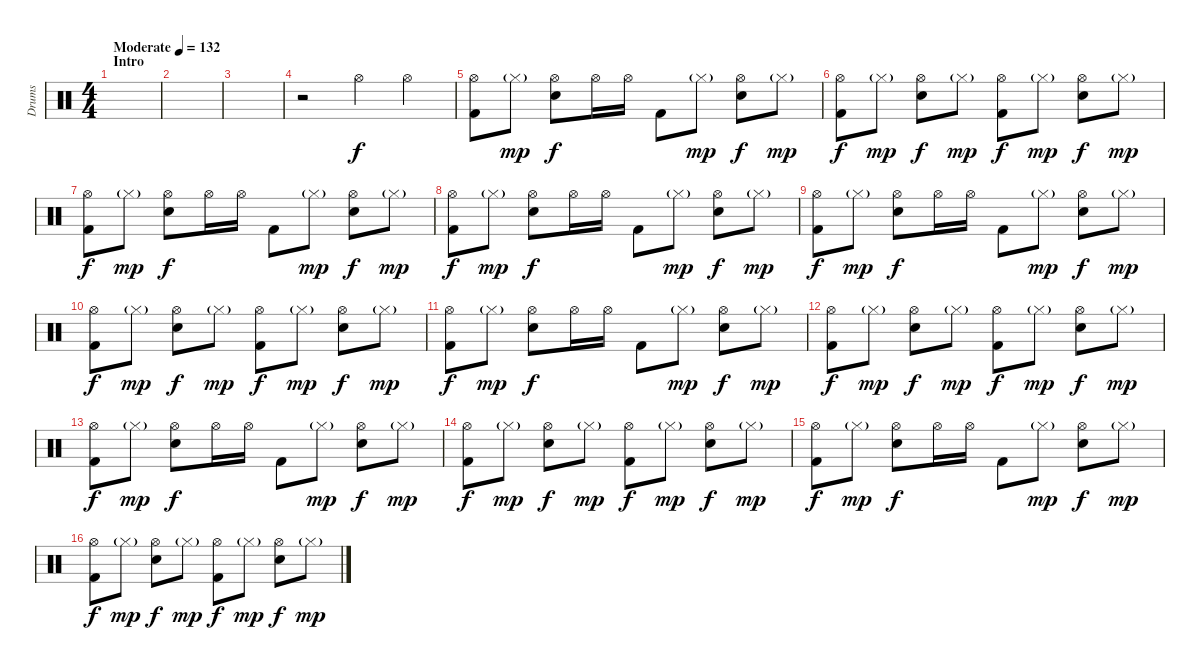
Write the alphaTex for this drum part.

\track ("Drums" "Drums") {instrument percussion}
\staff {score}
\articulation defaults
\ts (4 4)
\section ("" "Intro")
\tempo (132 "Moderate")
\clef neutral
\ks c
|
|
|
r.2 "Hi-Hat (open)".4 "Hi-Hat (open)".4 |
("Hi-Hat (open)" "Kick (hit) 2").8 "Hi-Hat (closed)"{g}.8{dy mp} ("Hi-Hat (open)" "Snare (hit) 2").8{dy f} "Hi-Hat (open)".16 "Hi-Hat (open)".16 "Kick (hit) 2".8 "Hi-Hat (closed)"{g}.8{dy mp} ("Hi-Hat (open)" "Snare (hit) 2").8{dy f} "Hi-Hat (closed)"{g}.8{dy mp} |
("Hi-Hat (open)" "Kick (hit) 2").8{dy f} "Hi-Hat (closed)"{g}.8{dy mp} ("Hi-Hat (open)" "Snare (hit) 2").8{dy f} "Hi-Hat (closed)"{g}.8{dy mp} ("Hi-Hat (open)" "Kick (hit) 2").8{dy f} "Hi-Hat (closed)"{g}.8{dy mp} ("Hi-Hat (open)" "Snare (hit) 2").8{dy f} "Hi-Hat (closed)"{g}.8{dy mp} |
("Hi-Hat (open)" "Kick (hit) 2").8{dy f} "Hi-Hat (closed)"{g}.8{dy mp} ("Hi-Hat (open)" "Snare (hit) 2").8{dy f} "Hi-Hat (open)".16 "Hi-Hat (open)".16 "Kick (hit) 2".8 "Hi-Hat (closed)"{g}.8{dy mp} ("Hi-Hat (open)" "Snare (hit) 2").8{dy f} "Hi-Hat (closed)"{g}.8{dy mp} |
("Hi-Hat (open)" "Kick (hit) 2").8{dy f} "Hi-Hat (closed)"{g}.8{dy mp} ("Hi-Hat (open)" "Snare (hit) 2").8{dy f} "Hi-Hat (open)".16 "Hi-Hat (open)".16 "Kick (hit) 2".8 "Hi-Hat (closed)"{g}.8{dy mp} ("Hi-Hat (open)" "Snare (hit) 2").8{dy f} "Hi-Hat (closed)"{g}.8{dy mp} |
("Hi-Hat (open)" "Kick (hit) 2").8{dy f} "Hi-Hat (closed)"{g}.8{dy mp} ("Hi-Hat (open)" "Snare (hit) 2").8{dy f} "Hi-Hat (open)".16 "Hi-Hat (open)".16 "Kick (hit) 2".8 "Hi-Hat (closed)"{g}.8{dy mp} ("Hi-Hat (open)" "Snare (hit) 2").8{dy f} "Hi-Hat (closed)"{g}.8{dy mp} |
("Hi-Hat (open)" "Kick (hit) 2").8{dy f} "Hi-Hat (closed)"{g}.8{dy mp} ("Hi-Hat (open)" "Snare (hit) 2").8{dy f} "Hi-Hat (closed)"{g}.8{dy mp} ("Hi-Hat (open)" "Kick (hit) 2").8{dy f} "Hi-Hat (closed)"{g}.8{dy mp} ("Hi-Hat (open)" "Snare (hit) 2").8{dy f} "Hi-Hat (closed)"{g}.8{dy mp} |
("Hi-Hat (open)" "Kick (hit) 2").8{dy f} "Hi-Hat (closed)"{g}.8{dy mp} ("Hi-Hat (open)" "Snare (hit) 2").8{dy f} "Hi-Hat (open)".16 "Hi-Hat (open)".16 "Kick (hit) 2".8 "Hi-Hat (closed)"{g}.8{dy mp} ("Hi-Hat (open)" "Snare (hit) 2").8{dy f} "Hi-Hat (closed)"{g}.8{dy mp} |
("Hi-Hat (open)" "Kick (hit) 2").8{dy f} "Hi-Hat (closed)"{g}.8{dy mp} ("Hi-Hat (open)" "Snare (hit) 2").8{dy f} "Hi-Hat (closed)"{g}.8{dy mp} ("Hi-Hat (open)" "Kick (hit) 2").8{dy f} "Hi-Hat (closed)"{g}.8{dy mp} ("Hi-Hat (open)" "Snare (hit) 2").8{dy f} "Hi-Hat (closed)"{g}.8{dy mp} |
("Hi-Hat (open)" "Kick (hit) 2").8{dy f} "Hi-Hat (closed)"{g}.8{dy mp} ("Hi-Hat (open)" "Snare (hit) 2").8{dy f} "Hi-Hat (open)".16 "Hi-Hat (open)".16 "Kick (hit) 2".8 "Hi-Hat (closed)"{g}.8{dy mp} ("Hi-Hat (open)" "Snare (hit) 2").8{dy f} "Hi-Hat (closed)"{g}.8{dy mp} |
("Hi-Hat (open)" "Kick (hit) 2").8{dy f} "Hi-Hat (closed)"{g}.8{dy mp} ("Hi-Hat (open)" "Snare (hit) 2").8{dy f} "Hi-Hat (closed)"{g}.8{dy mp} ("Hi-Hat (open)" "Kick (hit) 2").8{dy f} "Hi-Hat (closed)"{g}.8{dy mp} ("Hi-Hat (open)" "Snare (hit) 2").8{dy f} "Hi-Hat (closed)"{g}.8{dy mp} |
("Hi-Hat (open)" "Kick (hit) 2").8{dy f} "Hi-Hat (closed)"{g}.8{dy mp} ("Hi-Hat (open)" "Snare (hit) 2").8{dy f} "Hi-Hat (open)".16 "Hi-Hat (open)".16 "Kick (hit) 2".8 "Hi-Hat (closed)"{g}.8{dy mp} ("Hi-Hat (open)" "Snare (hit) 2").8{dy f} "Hi-Hat (closed)"{g}.8{dy mp} |
("Hi-Hat (open)" "Kick (hit) 2").8{dy f} "Hi-Hat (closed)"{g}.8{dy mp} ("Hi-Hat (open)" "Snare (hit) 2").8{dy f} "Hi-Hat (closed)"{g}.8{dy mp} ("Hi-Hat (open)" "Kick (hit) 2").8{dy f} "Hi-Hat (closed)"{g}.8{dy mp} ("Hi-Hat (open)" "Snare (hit) 2").8{dy f} "Hi-Hat (closed)"{g}.8{dy mp}
